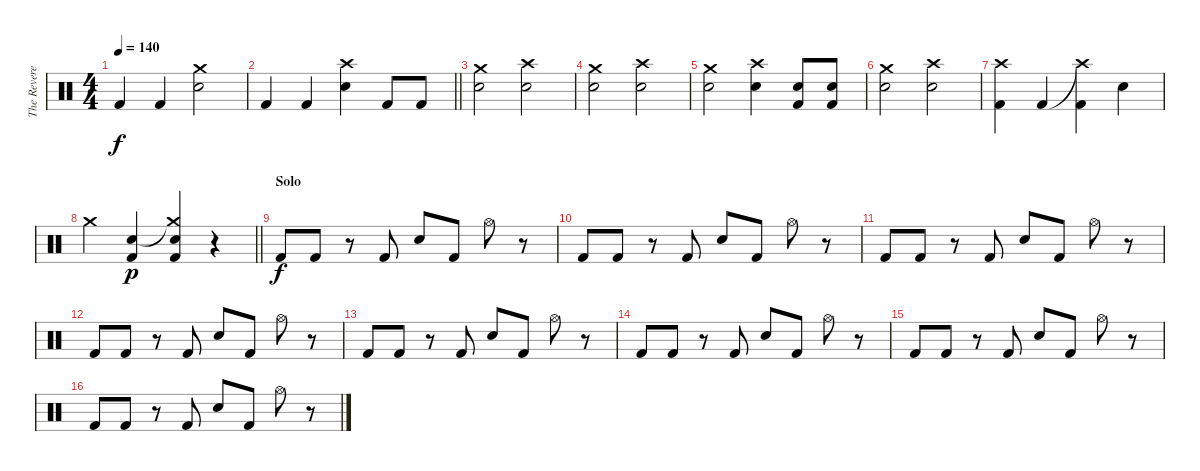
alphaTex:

\track ("The Reverend" "The Revere") {instrument percussion}
\staff {score}
\articulation defaults
\ts (4 4)
\tempo 140
\clef neutral
\ks c "Kick (hit) 2".4{dy f} "Kick (hit) 2".4
("Crash medium (hit)" "Snare (hit) 2").2 |
\barLineRight lightlight "Kick (hit) 2".4 "Kick (hit) 2".4
("Crash high (hit)" "Snare (hit) 2").4 "Kick (hit) 2".8 "Kick (hit) 2".8 |
("Crash medium (hit)" "Snare (hit) 2").2 ("Crash high (hit)" "Snare (hit) 2").2 |
("Crash medium (hit)" "Snare (hit) 2").2 ("Crash high (hit)" "Snare (hit) 2").2 |
("Crash medium (hit)" "Snare (hit) 2").2 ("Crash high (hit)" "Snare (hit) 2").4 ("Snare (hit) 2" "Kick (hit) 2").8 ("Snare (hit) 2" "Kick (hit) 2").8 |
("Crash medium (hit)" "Snare (hit) 2").2 ("Crash high (hit)" "Snare (hit) 2").2 |
("Crash high (hit)" "Kick (hit) 2").4 "Kick (hit) 2".4 ("Crash high (hit)"{t} "Kick (hit) 2").4 "Snare (hit) 2".4 |
\barLineRight lightlight "Crash medium (hit)".4
("Snare (hit) 2" "Kick (hit) 2").4{dy p} ("Crash medium (hit)"{t} "Snare (hit) 2" "Kick (hit) 2").4 r.4 |
\section ("" "Solo")
"Kick (hit) 2".8{dy f} "Kick (hit) 2".8 r.8 "Kick (hit) 2".8 "Snare (hit) 2".8 "Kick (hit) 2".8 "Hi-Hat (open)".8 r.8 |
"Kick (hit) 2".8 "Kick (hit) 2".8 r.8 "Kick (hit) 2".8 "Snare (hit) 2".8 "Kick (hit) 2".8 "Hi-Hat (open)".8 r.8 |
"Kick (hit) 2".8 "Kick (hit) 2".8 r.8 "Kick (hit) 2".8 "Snare (hit) 2".8 "Kick (hit) 2".8 "Hi-Hat (open)".8 r.8 |
"Kick (hit) 2".8 "Kick (hit) 2".8 r.8 "Kick (hit) 2".8 "Snare (hit) 2".8 "Kick (hit) 2".8 "Hi-Hat (open)".8 r.8 |
"Kick (hit) 2".8 "Kick (hit) 2".8 r.8 "Kick (hit) 2".8 "Snare (hit) 2".8 "Kick (hit) 2".8 "Hi-Hat (open)".8 r.8 |
"Kick (hit) 2".8 "Kick (hit) 2".8 r.8 "Kick (hit) 2".8 "Snare (hit) 2".8 "Kick (hit) 2".8 "Hi-Hat (open)".8 r.8 |
"Kick (hit) 2".8 "Kick (hit) 2".8 r.8 "Kick (hit) 2".8 "Snare (hit) 2".8 "Kick (hit) 2".8 "Hi-Hat (open)".8 r.8 |
"Kick (hit) 2".8 "Kick (hit) 2".8 r.8 "Kick (hit) 2".8 "Snare (hit) 2".8 "Kick (hit) 2".8 "Hi-Hat (open)".8 r.8
